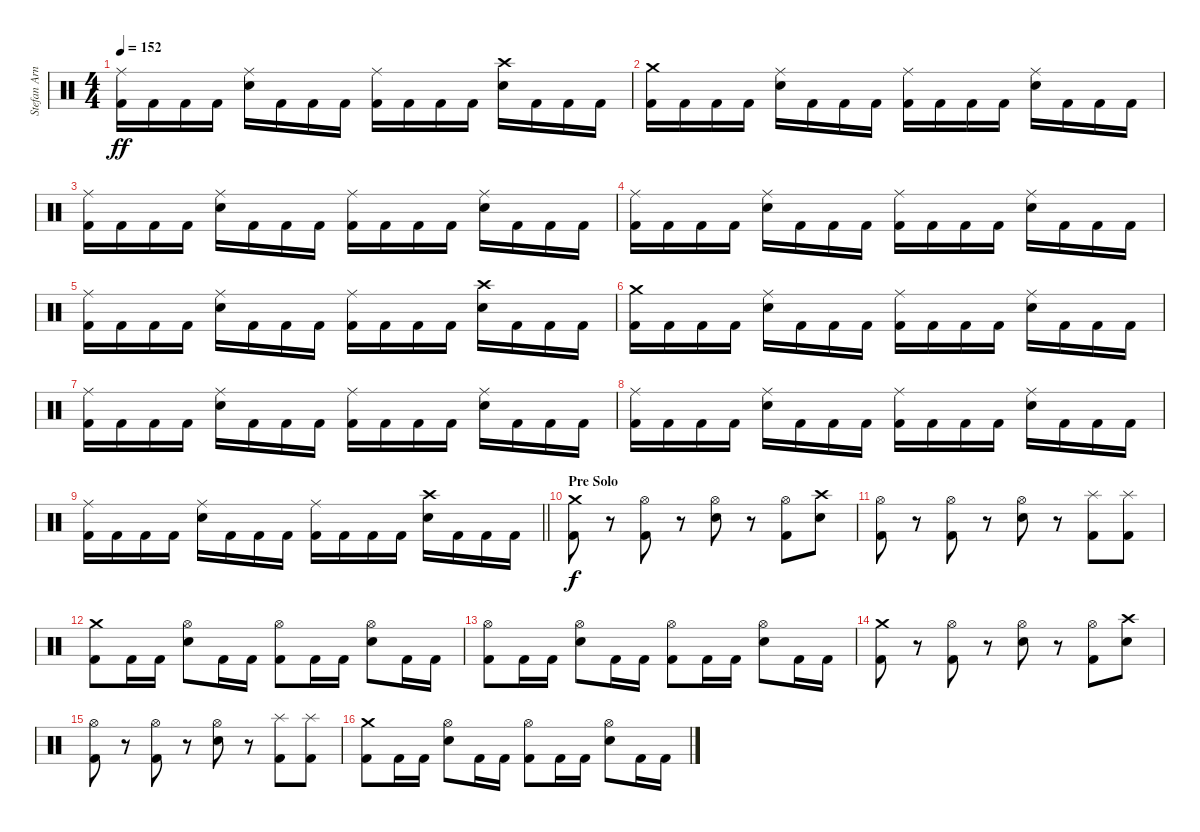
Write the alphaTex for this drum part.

\track ("Stefan Arnold" "Stefan Arn") {instrument percussion}
\staff {score}
\articulation defaults
\ts (4 4)
\tempo 152
\clef neutral
\ks c
("Ride (middle)" "Kick (hit) 2").16{dy ff} "Kick (hit) 2".16 "Kick (hit) 2".16 "Kick (hit) 2".16 ("Ride (middle)" "Electric Snare (hit)").16 "Kick (hit) 2".16 "Kick (hit) 2".16 "Kick (hit) 2".16 ("Ride (middle)" "Kick (hit) 2").16 "Kick (hit) 2".16 "Kick (hit) 2".16 "Kick (hit) 2".16 ("Crash high (hit)" "Electric Snare (hit)").16 "Kick (hit) 2".16 "Kick (hit) 2".16 "Kick (hit) 2".16 |
("Crash medium (hit)" "Kick (hit) 2").16 "Kick (hit) 2".16 "Kick (hit) 2".16 "Kick (hit) 2".16 ("Ride (middle)" "Electric Snare (hit)").16 "Kick (hit) 2".16 "Kick (hit) 2".16 "Kick (hit) 2".16 ("Ride (middle)" "Kick (hit) 2").16 "Kick (hit) 2".16 "Kick (hit) 2".16 "Kick (hit) 2".16 ("Ride (middle)" "Electric Snare (hit)").16 "Kick (hit) 2".16 "Kick (hit) 2".16 "Kick (hit) 2".16 |
("Ride (middle)" "Kick (hit) 2").16 "Kick (hit) 2".16 "Kick (hit) 2".16 "Kick (hit) 2".16 ("Ride (middle)" "Electric Snare (hit)").16 "Kick (hit) 2".16 "Kick (hit) 2".16 "Kick (hit) 2".16 ("Ride (middle)" "Kick (hit) 2").16 "Kick (hit) 2".16 "Kick (hit) 2".16 "Kick (hit) 2".16 ("Ride (middle)" "Electric Snare (hit)").16 "Kick (hit) 2".16 "Kick (hit) 2".16 "Kick (hit) 2".16 |
("Ride (middle)" "Kick (hit) 2").16 "Kick (hit) 2".16 "Kick (hit) 2".16 "Kick (hit) 2".16 ("Ride (middle)" "Electric Snare (hit)").16 "Kick (hit) 2".16 "Kick (hit) 2".16 "Kick (hit) 2".16 ("Ride (middle)" "Kick (hit) 2").16 "Kick (hit) 2".16 "Kick (hit) 2".16 "Kick (hit) 2".16 ("Ride (middle)" "Electric Snare (hit)").16 "Kick (hit) 2".16 "Kick (hit) 2".16 "Kick (hit) 2".16 |
("Ride (middle)" "Kick (hit) 2").16 "Kick (hit) 2".16 "Kick (hit) 2".16 "Kick (hit) 2".16 ("Ride (middle)" "Electric Snare (hit)").16 "Kick (hit) 2".16 "Kick (hit) 2".16 "Kick (hit) 2".16 ("Ride (middle)" "Kick (hit) 2").16 "Kick (hit) 2".16 "Kick (hit) 2".16 "Kick (hit) 2".16 ("Crash high (hit)" "Electric Snare (hit)").16 "Kick (hit) 2".16 "Kick (hit) 2".16 "Kick (hit) 2".16 |
("Crash medium (hit)" "Kick (hit) 2").16 "Kick (hit) 2".16 "Kick (hit) 2".16 "Kick (hit) 2".16 ("Ride (middle)" "Electric Snare (hit)").16 "Kick (hit) 2".16 "Kick (hit) 2".16 "Kick (hit) 2".16 ("Ride (middle)" "Kick (hit) 2").16 "Kick (hit) 2".16 "Kick (hit) 2".16 "Kick (hit) 2".16 ("Ride (middle)" "Electric Snare (hit)").16 "Kick (hit) 2".16 "Kick (hit) 2".16 "Kick (hit) 2".16 |
("Ride (middle)" "Kick (hit) 2").16 "Kick (hit) 2".16 "Kick (hit) 2".16 "Kick (hit) 2".16 ("Ride (middle)" "Electric Snare (hit)").16 "Kick (hit) 2".16 "Kick (hit) 2".16 "Kick (hit) 2".16 ("Ride (middle)" "Kick (hit) 2").16 "Kick (hit) 2".16 "Kick (hit) 2".16 "Kick (hit) 2".16 ("Ride (middle)" "Electric Snare (hit)").16 "Kick (hit) 2".16 "Kick (hit) 2".16 "Kick (hit) 2".16 |
("Ride (middle)" "Kick (hit) 2").16 "Kick (hit) 2".16 "Kick (hit) 2".16 "Kick (hit) 2".16 ("Ride (middle)" "Electric Snare (hit)").16 "Kick (hit) 2".16 "Kick (hit) 2".16 "Kick (hit) 2".16 ("Ride (middle)" "Kick (hit) 2").16 "Kick (hit) 2".16 "Kick (hit) 2".16 "Kick (hit) 2".16 ("Ride (middle)" "Electric Snare (hit)").16 "Kick (hit) 2".16 "Kick (hit) 2".16 "Kick (hit) 2".16 |
\barLineRight lightlight
("Ride (middle)" "Kick (hit) 2").16 "Kick (hit) 2".16 "Kick (hit) 2".16 "Kick (hit) 2".16 ("Ride (middle)" "Electric Snare (hit)").16 "Kick (hit) 2".16 "Kick (hit) 2".16 "Kick (hit) 2".16 ("Ride (middle)" "Kick (hit) 2").16 "Kick (hit) 2".16 "Kick (hit) 2".16 "Kick (hit) 2".16 ("Crash high (hit)" "Electric Snare (hit)").16 "Kick (hit) 2".16 "Kick (hit) 2".16 "Kick (hit) 2".16 |
\section ("" "Pre Solo")
("Crash medium (hit)" "Kick (hit) 2").8{dy f} r.8 ("Hi-Hat (open)" "Kick (hit) 2").8 r.8 ("Hi-Hat (open)" "Electric Snare (hit)").8 r.8 ("Hi-Hat (open)" "Kick (hit) 2").8 ("Crash high (hit)" "Electric Snare (hit)").8 |
("Hi-Hat (open)" "Kick (hit) 2").8 r.8 ("Hi-Hat (open)" "Kick (hit) 2").8 r.8 ("Hi-Hat (open)" "Electric Snare (hit)").8 r.8 ("Splash (hit)" "Kick (hit) 2").8 ("Splash (hit)" "Kick (hit) 2").8 |
("Crash medium (hit)" "Kick (hit) 2").8 "Kick (hit) 2".16 "Kick (hit) 2".16 ("Hi-Hat (open)" "Electric Snare (hit)").8 "Kick (hit) 2".16 "Kick (hit) 2".16 ("Hi-Hat (open)" "Kick (hit) 2").8 "Kick (hit) 2".16 "Kick (hit) 2".16 ("Hi-Hat (open)" "Electric Snare (hit)").8 "Kick (hit) 2".16 "Kick (hit) 2".16 |
("Hi-Hat (open)" "Kick (hit) 2").8 "Kick (hit) 2".16 "Kick (hit) 2".16 ("Hi-Hat (open)" "Electric Snare (hit)").8 "Kick (hit) 2".16 "Kick (hit) 2".16 ("Hi-Hat (open)" "Kick (hit) 2").8 "Kick (hit) 2".16 "Kick (hit) 2".16 ("Hi-Hat (open)" "Electric Snare (hit)").8 "Kick (hit) 2".16 "Kick (hit) 2".16 |
("Crash medium (hit)" "Kick (hit) 2").8 r.8 ("Hi-Hat (open)" "Kick (hit) 2").8 r.8 ("Hi-Hat (open)" "Electric Snare (hit)").8 r.8 ("Hi-Hat (open)" "Kick (hit) 2").8 ("Crash high (hit)" "Electric Snare (hit)").8 |
("Hi-Hat (open)" "Kick (hit) 2").8 r.8 ("Hi-Hat (open)" "Kick (hit) 2").8 r.8 ("Hi-Hat (open)" "Electric Snare (hit)").8 r.8 ("Splash (hit)" "Kick (hit) 2").8 ("Splash (hit)" "Kick (hit) 2").8 |
("Crash medium (hit)" "Kick (hit) 2").8 "Kick (hit) 2".16 "Kick (hit) 2".16 ("Hi-Hat (open)" "Electric Snare (hit)").8 "Kick (hit) 2".16 "Kick (hit) 2".16 ("Hi-Hat (open)" "Kick (hit) 2").8 "Kick (hit) 2".16 "Kick (hit) 2".16 ("Hi-Hat (open)" "Electric Snare (hit)").8 "Kick (hit) 2".16 "Kick (hit) 2".16
